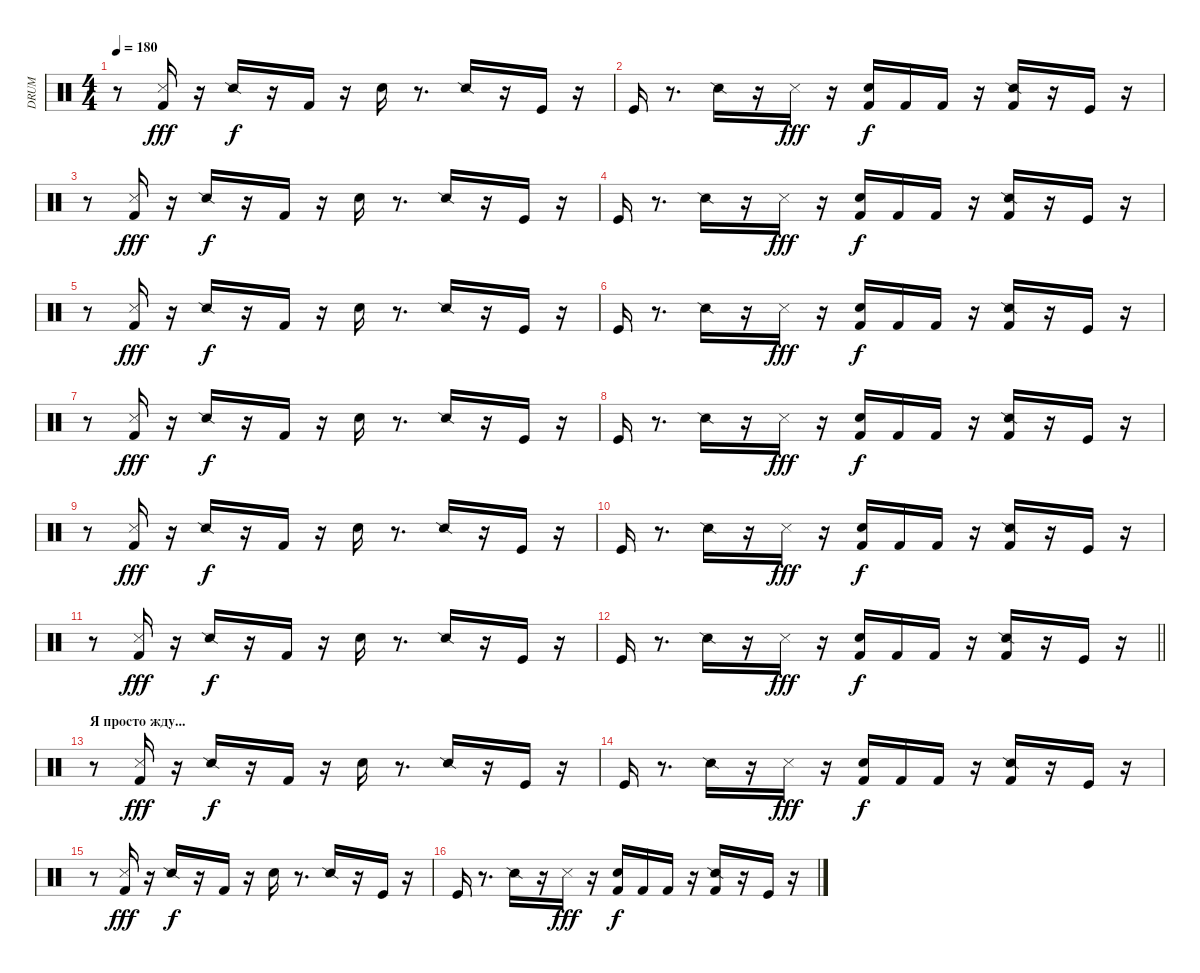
\track ("DRUM" "DRUM") {instrument percussion}
\staff {score}
\articulation defaults
\ts (4 4)
\tempo 180
\clef neutral
\ks c
r.8{dy f} ("Snare (side stick) 3" "Kick (hit) 2").16{dy fff} r.16 "Snare (side stick) 2".16{dy f} r.16 "Kick (hit) 2".16 r.16 "Snare (hit) 2".16 r.8{d} "Snare (side stick) 2".16 r.16 "Kick (hit)".16 r.16 |
"Kick (hit)".16 r.8{d} "Snare (side stick) 2".16 r.16 "Snare (side stick) 3".16{dy fff} r.16 ("Kick (hit) 2" "Snare (hit) 2").16{dy f} "Kick (hit) 2".16 "Kick (hit) 2".16 r.16 ("Snare (side stick) 2" "Kick (hit) 2").16 r.16 "Kick (hit)".16 r.16 |
r.8 ("Snare (side stick) 3" "Kick (hit) 2").16{dy fff} r.16 "Snare (side stick) 2".16{dy f} r.16 "Kick (hit) 2".16 r.16 "Snare (hit) 2".16 r.8{d} "Snare (side stick) 2".16 r.16 "Kick (hit)".16 r.16 |
"Kick (hit)".16 r.8{d} "Snare (side stick) 2".16 r.16 "Snare (side stick) 3".16{dy fff} r.16 ("Kick (hit) 2" "Snare (hit) 2").16{dy f} "Kick (hit) 2".16 "Kick (hit) 2".16 r.16 ("Snare (side stick) 2" "Kick (hit) 2").16 r.16 "Kick (hit)".16 r.16 |
r.8 ("Snare (side stick) 3" "Kick (hit) 2").16{dy fff} r.16 "Snare (side stick) 2".16{dy f} r.16 "Kick (hit) 2".16 r.16 "Snare (hit) 2".16 r.8{d} "Snare (side stick) 2".16 r.16 "Kick (hit)".16 r.16 |
"Kick (hit)".16 r.8{d} "Snare (side stick) 2".16 r.16 "Snare (side stick) 3".16{dy fff} r.16 ("Kick (hit) 2" "Snare (hit) 2").16{dy f} "Kick (hit) 2".16 "Kick (hit) 2".16 r.16 ("Snare (side stick) 2" "Kick (hit) 2").16 r.16 "Kick (hit)".16 r.16 |
r.8 ("Snare (side stick) 3" "Kick (hit) 2").16{dy fff} r.16 "Snare (side stick) 2".16{dy f} r.16 "Kick (hit) 2".16 r.16 "Snare (hit) 2".16 r.8{d} "Snare (side stick) 2".16 r.16 "Kick (hit)".16 r.16 |
"Kick (hit)".16 r.8{d} "Snare (side stick) 2".16 r.16 "Snare (side stick) 3".16{dy fff} r.16 ("Kick (hit) 2" "Snare (hit) 2").16{dy f} "Kick (hit) 2".16 "Kick (hit) 2".16 r.16 ("Snare (side stick) 2" "Kick (hit) 2").16 r.16 "Kick (hit)".16 r.16 |
r.8 ("Snare (side stick) 3" "Kick (hit) 2").16{dy fff} r.16 "Snare (side stick) 2".16{dy f} r.16 "Kick (hit) 2".16 r.16 "Snare (hit) 2".16 r.8{d} "Snare (side stick) 2".16 r.16 "Kick (hit)".16 r.16 |
"Kick (hit)".16 r.8{d} "Snare (side stick) 2".16 r.16 "Snare (side stick) 3".16{dy fff} r.16 ("Kick (hit) 2" "Snare (hit) 2").16{dy f} "Kick (hit) 2".16 "Kick (hit) 2".16 r.16 ("Snare (side stick) 2" "Kick (hit) 2").16 r.16 "Kick (hit)".16 r.16 |
r.8 ("Snare (side stick) 3" "Kick (hit) 2").16{dy fff} r.16 "Snare (side stick) 2".16{dy f} r.16 "Kick (hit) 2".16 r.16 "Snare (hit) 2".16 r.8{d} "Snare (side stick) 2".16 r.16 "Kick (hit)".16 r.16 |
\barLineRight lightlight "Kick (hit)".16
r.8{d} "Snare (side stick) 2".16 r.16 "Snare (side stick) 3".16{dy fff} r.16 ("Kick (hit) 2" "Snare (hit) 2").16{dy f} "Kick (hit) 2".16 "Kick (hit) 2".16 r.16 ("Snare (side stick) 2" "Kick (hit) 2").16 r.16 "Kick (hit)".16 r.16 |
\section ("" "Я просто жду...")
r.8 ("Snare (side stick) 3" "Kick (hit) 2").16{dy fff} r.16 "Snare (side stick) 2".16{dy f} r.16 "Kick (hit) 2".16 r.16 "Snare (hit) 2".16 r.8{d} "Snare (side stick) 2".16 r.16 "Kick (hit)".16 r.16 |
"Kick (hit)".16 r.8{d} "Snare (side stick) 2".16 r.16 "Snare (side stick) 3".16{dy fff} r.16 ("Kick (hit) 2" "Snare (hit) 2").16{dy f} "Kick (hit) 2".16 "Kick (hit) 2".16 r.16 ("Snare (side stick) 2" "Kick (hit) 2").16 r.16 "Kick (hit)".16 r.16 |
r.8 ("Snare (side stick) 3" "Kick (hit) 2").16{dy fff} r.16 "Snare (side stick) 2".16{dy f} r.16 "Kick (hit) 2".16 r.16 "Snare (hit) 2".16 r.8{d} "Snare (side stick) 2".16 r.16 "Kick (hit)".16 r.16 |
"Kick (hit)".16 r.8{d} "Snare (side stick) 2".16 r.16 "Snare (side stick) 3".16{dy fff} r.16 ("Kick (hit) 2" "Snare (hit) 2").16{dy f} "Kick (hit) 2".16 "Kick (hit) 2".16 r.16 ("Snare (side stick) 2" "Kick (hit) 2").16 r.16 "Kick (hit)".16 r.16
